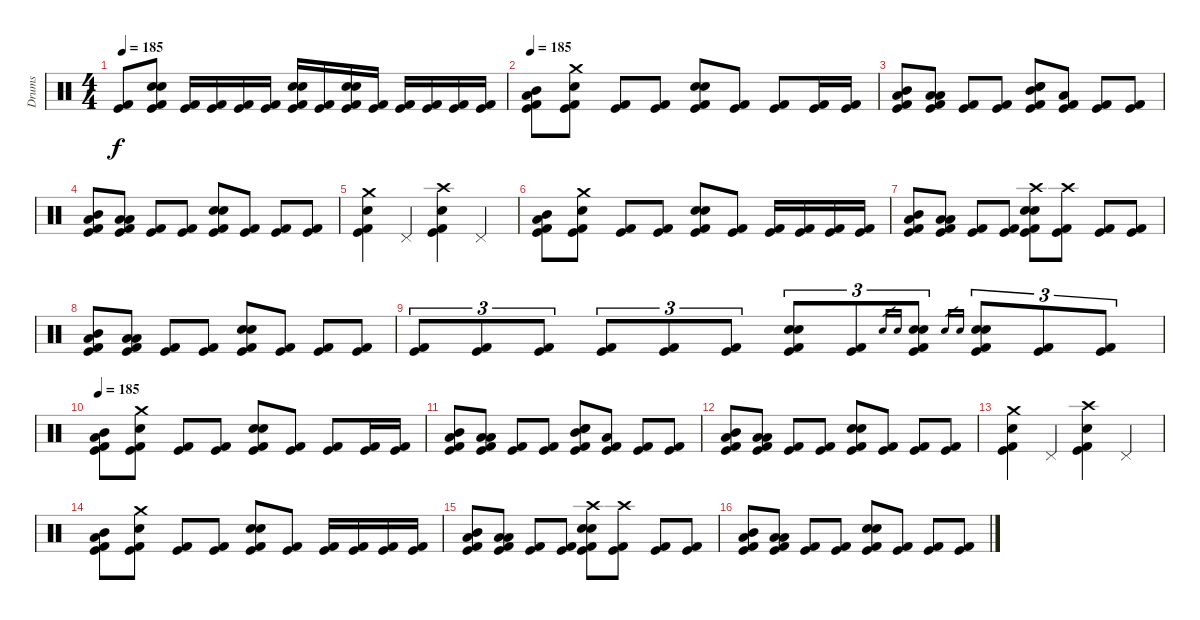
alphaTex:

\track ("Drums" "Drums") {instrument percussion}
\staff {score}
\articulation defaults
\ts (4 4)
\tempo 185
\clef neutral
\ks c
("Kick (hit) 2" "Kick (hit)").8{dy f} ("Electric Snare (hit)" "Snare (hit) 2" "Kick (hit) 2" "Kick (hit)").8 ("Kick (hit) 2" "Kick (hit)").16 ("Kick (hit) 2" "Kick (hit)").16 ("Kick (hit) 2" "Kick (hit)").16 ("Kick (hit) 2" "Kick (hit)").16 ("Electric Snare (hit)" "Snare (hit) 2" "Kick (hit) 2" "Kick (hit)").16 ("Kick (hit) 2" "Kick (hit)").16 ("Electric Snare (hit)" "Snare (hit) 2" "Kick (hit) 2" "Kick (hit)").16 ("Kick (hit) 2" "Kick (hit)").16 ("Kick (hit) 2" "Kick (hit)").16 ("Kick (hit) 2" "Kick (hit)").16 ("Kick (hit) 2" "Kick (hit)").16 ("Kick (hit) 2" "Kick (hit)").16 |
\tempo 185
("Mid Tom (hit)" "Low Tom (hit)" "Kick (hit) 2" "Kick (hit)").8 ("Crash medium (hit)" "Snare (hit) 2" "Kick (hit) 2" "Kick (hit)").8 ("Kick (hit) 2" "Kick (hit)").8 ("Kick (hit) 2" "Kick (hit)").8 ("Electric Snare (hit)" "Snare (hit) 2" "Kick (hit) 2" "Kick (hit)").8 ("Kick (hit) 2" "Kick (hit)").8 ("Kick (hit) 2" "Kick (hit)").8 ("Kick (hit) 2" "Kick (hit)").16 ("Kick (hit) 2" "Kick (hit)").16 |
("Mid Tom (hit)" "Low Tom (hit)" "Kick (hit) 2" "Kick (hit)").8 ("Low Tom (hit)" "Low Tom (hit)" "Kick (hit) 2" "Kick (hit)").8 ("Kick (hit) 2" "Kick (hit)").8 ("Kick (hit) 2" "Kick (hit)").8 ("Mid Tom (hit)" "Electric Snare (hit)" "Snare (hit) 2" "Kick (hit) 2" "Kick (hit)").8 ("Low Tom (hit)" "Kick (hit) 2" "Kick (hit)").8 ("Kick (hit) 2" "Kick (hit)").8 ("Kick (hit) 2" "Kick (hit)").8 |
("Mid Tom (hit)" "Low Tom (hit)" "Kick (hit) 2" "Kick (hit)").8 ("Low Tom (hit)" "Low Tom (hit)" "Kick (hit) 2" "Kick (hit)").8 ("Kick (hit) 2" "Kick (hit)").8 ("Kick (hit) 2" "Kick (hit)").8 ("Electric Snare (hit)" "Snare (hit) 2" "Kick (hit) 2" "Kick (hit)").8 ("Kick (hit) 2" "Kick (hit)").8 ("Kick (hit) 2" "Kick (hit)").8 ("Kick (hit) 2" "Kick (hit)").8 |
("Crash medium (hit)" "Snare (hit) 2" "Kick (hit) 2" "Kick (hit)").4 "Pedal Hi-Hat (hit)".4 ("Crash high (hit)" "Electric Snare (hit)" "Kick (hit) 2" "Kick (hit)").4 "Pedal Hi-Hat (hit)".4 |
("Mid Tom (hit)" "Low Tom (hit)" "Kick (hit) 2" "Kick (hit)").8 ("Crash medium (hit)" "Snare (hit) 2" "Kick (hit) 2" "Kick (hit)").8 ("Kick (hit) 2" "Kick (hit)").8 ("Kick (hit) 2" "Kick (hit)").8 ("Electric Snare (hit)" "Snare (hit) 2" "Kick (hit) 2" "Kick (hit)").8 ("Kick (hit) 2" "Kick (hit)").8 ("Kick (hit) 2" "Kick (hit)").16 ("Kick (hit) 2" "Kick (hit)").16 ("Kick (hit) 2" "Kick (hit)").16 ("Kick (hit) 2" "Kick (hit)").16 |
("Mid Tom (hit)" "Low Tom (hit)" "Kick (hit) 2" "Kick (hit)").8 ("Low Tom (hit)" "Low Tom (hit)" "Kick (hit) 2" "Kick (hit)").8 ("Kick (hit) 2" "Kick (hit)").8 ("Kick (hit) 2" "Kick (hit)").8 ("Crash high (hit)" "Electric Snare (hit)" "Snare (hit) 2" "Kick (hit) 2" "Kick (hit)").8 ("Crash high (hit)" "Kick (hit) 2" "Kick (hit)").8 ("Kick (hit) 2" "Kick (hit)").8 ("Kick (hit) 2" "Kick (hit)").8 |
("Mid Tom (hit)" "Low Tom (hit)" "Kick (hit) 2" "Kick (hit)").8 ("Low Tom (hit)" "Low Tom (hit)" "Kick (hit) 2" "Kick (hit)").8 ("Kick (hit) 2" "Kick (hit)").8 ("Kick (hit) 2" "Kick (hit)").8 ("Electric Snare (hit)" "Snare (hit) 2" "Kick (hit) 2" "Kick (hit)").8 ("Kick (hit) 2" "Kick (hit)").8 ("Kick (hit) 2" "Kick (hit)").8 ("Kick (hit) 2" "Kick (hit)").8 |
("Kick (hit) 2" "Kick (hit)").8{tu (3 2)} ("Kick (hit) 2" "Kick (hit)").8{tu (3 2)} ("Kick (hit) 2" "Kick (hit)").8{tu (3 2)} ("Kick (hit) 2" "Kick (hit)").8{tu (3 2)} ("Kick (hit) 2" "Kick (hit)").8{tu (3 2)} ("Kick (hit) 2" "Kick (hit)").8{tu (3 2)} ("Electric Snare (hit)" "Snare (hit) 2" "Kick (hit) 2" "Kick (hit)").8{tu (3 2)} ("Kick (hit) 2" "Kick (hit)").8{tu (3 2)} "Electric Snare (hit)".16{gr} "Snare (hit) 2".16{gr} ("Electric Snare (hit)" "Snare (hit) 2" "Kick (hit) 2" "Kick (hit)").8{tu (3 2)} "Electric Snare (hit)".16{gr} "Snare (hit) 2".16{gr} ("Electric Snare (hit)" "Snare (hit) 2" "Kick (hit) 2" "Kick (hit)").8{tu (3 2)} ("Kick (hit) 2" "Kick (hit)").8{tu (3 2)} ("Kick (hit) 2" "Kick (hit)").8{tu (3 2)} |
\tempo 185
("Mid Tom (hit)" "Low Tom (hit)" "Kick (hit) 2" "Kick (hit)").8 ("Crash medium (hit)" "Snare (hit) 2" "Kick (hit) 2" "Kick (hit)").8 ("Kick (hit) 2" "Kick (hit)").8 ("Kick (hit) 2" "Kick (hit)").8 ("Electric Snare (hit)" "Snare (hit) 2" "Kick (hit) 2" "Kick (hit)").8 ("Kick (hit) 2" "Kick (hit)").8 ("Kick (hit) 2" "Kick (hit)").8 ("Kick (hit) 2" "Kick (hit)").16 ("Kick (hit) 2" "Kick (hit)").16 |
("Mid Tom (hit)" "Low Tom (hit)" "Kick (hit) 2" "Kick (hit)").8 ("Low Tom (hit)" "Low Tom (hit)" "Kick (hit) 2" "Kick (hit)").8 ("Kick (hit) 2" "Kick (hit)").8 ("Kick (hit) 2" "Kick (hit)").8 ("Mid Tom (hit)" "Electric Snare (hit)" "Snare (hit) 2" "Kick (hit) 2" "Kick (hit)").8 ("Low Tom (hit)" "Kick (hit) 2" "Kick (hit)").8 ("Kick (hit) 2" "Kick (hit)").8 ("Kick (hit) 2" "Kick (hit)").8 |
("Mid Tom (hit)" "Low Tom (hit)" "Kick (hit) 2" "Kick (hit)").8 ("Low Tom (hit)" "Low Tom (hit)" "Kick (hit) 2" "Kick (hit)").8 ("Kick (hit) 2" "Kick (hit)").8 ("Kick (hit) 2" "Kick (hit)").8 ("Electric Snare (hit)" "Snare (hit) 2" "Kick (hit) 2" "Kick (hit)").8 ("Kick (hit) 2" "Kick (hit)").8 ("Kick (hit) 2" "Kick (hit)").8 ("Kick (hit) 2" "Kick (hit)").8 |
("Crash medium (hit)" "Snare (hit) 2" "Kick (hit) 2" "Kick (hit)").4 "Pedal Hi-Hat (hit)".4 ("Crash high (hit)" "Electric Snare (hit)" "Kick (hit) 2" "Kick (hit)").4 "Pedal Hi-Hat (hit)".4 |
("Mid Tom (hit)" "Low Tom (hit)" "Kick (hit) 2" "Kick (hit)").8 ("Crash medium (hit)" "Snare (hit) 2" "Kick (hit) 2" "Kick (hit)").8 ("Kick (hit) 2" "Kick (hit)").8 ("Kick (hit) 2" "Kick (hit)").8 ("Electric Snare (hit)" "Snare (hit) 2" "Kick (hit) 2" "Kick (hit)").8 ("Kick (hit) 2" "Kick (hit)").8 ("Kick (hit) 2" "Kick (hit)").16 ("Kick (hit) 2" "Kick (hit)").16 ("Kick (hit) 2" "Kick (hit)").16 ("Kick (hit) 2" "Kick (hit)").16 |
("Mid Tom (hit)" "Low Tom (hit)" "Kick (hit) 2" "Kick (hit)").8 ("Low Tom (hit)" "Low Tom (hit)" "Kick (hit) 2" "Kick (hit)").8 ("Kick (hit) 2" "Kick (hit)").8 ("Kick (hit) 2" "Kick (hit)").8 ("Crash high (hit)" "Electric Snare (hit)" "Snare (hit) 2" "Kick (hit) 2" "Kick (hit)").8 ("Crash high (hit)" "Kick (hit) 2" "Kick (hit)").8 ("Kick (hit) 2" "Kick (hit)").8 ("Kick (hit) 2" "Kick (hit)").8 |
("Mid Tom (hit)" "Low Tom (hit)" "Kick (hit) 2" "Kick (hit)").8 ("Low Tom (hit)" "Low Tom (hit)" "Kick (hit) 2" "Kick (hit)").8 ("Kick (hit) 2" "Kick (hit)").8 ("Kick (hit) 2" "Kick (hit)").8 ("Electric Snare (hit)" "Snare (hit) 2" "Kick (hit) 2" "Kick (hit)").8 ("Kick (hit) 2" "Kick (hit)").8 ("Kick (hit) 2" "Kick (hit)").8 ("Kick (hit) 2" "Kick (hit)").8
